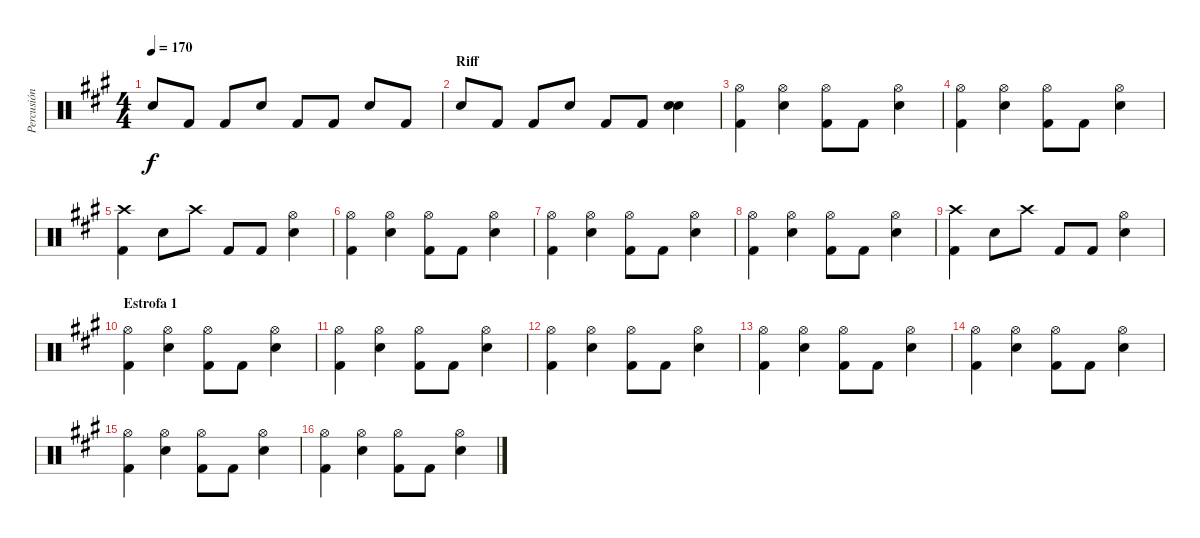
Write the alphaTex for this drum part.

\track ("Percusión" "Percusión") {instrument percussion}
\staff {score}
\articulation defaults
\ts (4 4)
\tempo 170
\clef neutral
\ks a "Snare (hit) 2".8{dy f} "Kick (hit) 2".8 "Kick (hit) 2".8 "Snare (hit) 2".8 "Kick (hit) 2".8 "Kick (hit) 2".8 "Snare (hit) 2".8 "Kick (hit) 2".8
|
\section ("" "Riff")
"Snare (hit) 2".8 "Kick (hit) 2".8 "Kick (hit) 2".8 "Snare (hit) 2".8 "Kick (hit) 2".8 "Kick (hit) 2".8 ("Snare (hit) 2" "Snare (hit) 2").4 |
("Hi-Hat (open)" "Kick (hit) 2").4 ("Hi-Hat (open)" "Snare (hit) 2").4 ("Hi-Hat (open)" "Kick (hit) 2").8 "Kick (hit) 2".8 ("Hi-Hat (open)" "Snare (hit) 2").4 |
("Hi-Hat (open)" "Kick (hit) 2").4 ("Hi-Hat (open)" "Snare (hit) 2").4 ("Hi-Hat (open)" "Kick (hit) 2").8 "Kick (hit) 2".8 ("Hi-Hat (open)" "Snare (hit) 2").4 |
("Crash high (hit)" "Kick (hit) 2").4 "Snare (hit) 2".8 "Crash high (hit)".8 "Kick (hit) 2".8 "Kick (hit) 2".8 ("Hi-Hat (open)" "Snare (hit) 2").4 |
("Hi-Hat (open)" "Kick (hit) 2").4 ("Hi-Hat (open)" "Snare (hit) 2").4 ("Hi-Hat (open)" "Kick (hit) 2").8 "Kick (hit) 2".8 ("Hi-Hat (open)" "Snare (hit) 2").4 |
("Hi-Hat (open)" "Kick (hit) 2").4 ("Hi-Hat (open)" "Snare (hit) 2").4 ("Hi-Hat (open)" "Kick (hit) 2").8 "Kick (hit) 2".8 ("Hi-Hat (open)" "Snare (hit) 2").4 |
("Hi-Hat (open)" "Kick (hit) 2").4 ("Hi-Hat (open)" "Snare (hit) 2").4 ("Hi-Hat (open)" "Kick (hit) 2").8 "Kick (hit) 2".8 ("Hi-Hat (open)" "Snare (hit) 2").4 |
("Crash high (hit)" "Kick (hit) 2").4 "Snare (hit) 2".8 "Crash high (hit)".8 "Kick (hit) 2".8 "Kick (hit) 2".8 ("Hi-Hat (open)" "Snare (hit) 2").4 |
\section ("" "Estrofa 1")
("Hi-Hat (open)" "Kick (hit) 2").4 ("Hi-Hat (open)" "Snare (hit) 2").4 ("Hi-Hat (open)" "Kick (hit) 2").8 "Kick (hit) 2".8 ("Hi-Hat (open)" "Snare (hit) 2").4 |
("Hi-Hat (open)" "Kick (hit) 2").4 ("Hi-Hat (open)" "Snare (hit) 2").4 ("Hi-Hat (open)" "Kick (hit) 2").8 "Kick (hit) 2".8 ("Hi-Hat (open)" "Snare (hit) 2").4 |
("Hi-Hat (open)" "Kick (hit) 2").4 ("Hi-Hat (open)" "Snare (hit) 2").4 ("Hi-Hat (open)" "Kick (hit) 2").8 "Kick (hit) 2".8 ("Hi-Hat (open)" "Snare (hit) 2").4 |
("Hi-Hat (open)" "Kick (hit) 2").4 ("Hi-Hat (open)" "Snare (hit) 2").4 ("Hi-Hat (open)" "Kick (hit) 2").8 "Kick (hit) 2".8 ("Hi-Hat (open)" "Snare (hit) 2").4 |
("Hi-Hat (open)" "Kick (hit) 2").4 ("Hi-Hat (open)" "Snare (hit) 2").4 ("Hi-Hat (open)" "Kick (hit) 2").8 "Kick (hit) 2".8 ("Hi-Hat (open)" "Snare (hit) 2").4 |
("Hi-Hat (open)" "Kick (hit) 2").4 ("Hi-Hat (open)" "Snare (hit) 2").4 ("Hi-Hat (open)" "Kick (hit) 2").8 "Kick (hit) 2".8 ("Hi-Hat (open)" "Snare (hit) 2").4 |
("Hi-Hat (open)" "Kick (hit) 2").4 ("Hi-Hat (open)" "Snare (hit) 2").4 ("Hi-Hat (open)" "Kick (hit) 2").8 "Kick (hit) 2".8 ("Hi-Hat (open)" "Snare (hit) 2").4
